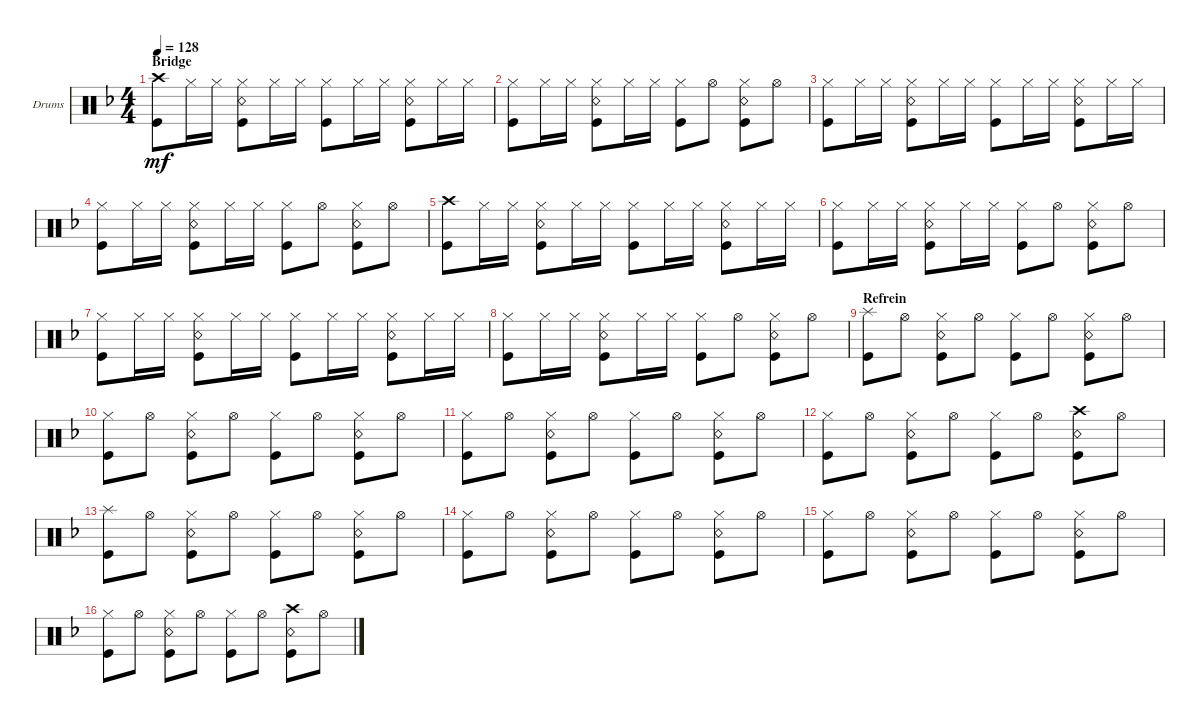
\defaultSystemsLayout 4
\bracketExtendMode groupsimilarinstruments
\firstSystemTrackNameOrientation horizontal
\otherSystemsTrackNameOrientation horizontal
\track ("Drumkit" "Drums") {instrument percussion}
\staff {score}
\articulation defaults
\ts (4 4)
\section ("" "Bridge")
\tempo 128
\clef neutral
\ks f
("Kick (hit)" "Crash high (hit)").8{dy mf} "Hi-Hat (closed)".16 "Hi-Hat (closed)".16 ("Snare (rim shot)" "Hi-Hat (closed)" "Kick (hit)").8 "Hi-Hat (closed)".16 "Hi-Hat (closed)".16 ("Kick (hit)" "Hi-Hat (closed)").8 "Hi-Hat (closed)".16 "Hi-Hat (closed)".16 ("Snare (rim shot)" "Hi-Hat (closed)" "Kick (hit)").8 "Hi-Hat (closed)".16 "Hi-Hat (closed)".16 |
("Kick (hit)" "Hi-Hat (closed)").8 "Hi-Hat (closed)".16 "Hi-Hat (closed)".16 ("Snare (rim shot)" "Hi-Hat (closed)" "Kick (hit)").8 "Hi-Hat (closed)".16 "Hi-Hat (closed)".16 ("Kick (hit)" "Hi-Hat (closed)").8 "Hi-Hat (open)".8 ("Snare (rim shot)" "Hi-Hat (closed)" "Kick (hit)").8 "Hi-Hat (open)".8 |
("Kick (hit)" "Hi-Hat (closed)").8 "Hi-Hat (closed)".16 "Hi-Hat (closed)".16 ("Snare (rim shot)" "Hi-Hat (closed)" "Kick (hit)").8 "Hi-Hat (closed)".16 "Hi-Hat (closed)".16 ("Kick (hit)" "Hi-Hat (closed)").8 "Hi-Hat (closed)".16 "Hi-Hat (closed)".16 ("Snare (rim shot)" "Hi-Hat (closed)" "Kick (hit)").8 "Hi-Hat (closed)".16 "Hi-Hat (closed)".16 |
("Kick (hit)" "Hi-Hat (closed)").8 "Hi-Hat (closed)".16 "Hi-Hat (closed)".16 ("Snare (rim shot)" "Hi-Hat (closed)" "Kick (hit)").8 "Hi-Hat (closed)".16 "Hi-Hat (closed)".16 ("Kick (hit)" "Hi-Hat (closed)").8 "Hi-Hat (open)".8 ("Snare (rim shot)" "Hi-Hat (closed)" "Kick (hit)").8 "Hi-Hat (open)".8 |
("Kick (hit)" "Crash high (hit)").8 "Hi-Hat (closed)".16 "Hi-Hat (closed)".16 ("Snare (rim shot)" "Hi-Hat (closed)" "Kick (hit)").8 "Hi-Hat (closed)".16 "Hi-Hat (closed)".16 ("Kick (hit)" "Hi-Hat (closed)").8 "Hi-Hat (closed)".16 "Hi-Hat (closed)".16 ("Snare (rim shot)" "Hi-Hat (closed)" "Kick (hit)").8 "Hi-Hat (closed)".16 "Hi-Hat (closed)".16 |
("Kick (hit)" "Hi-Hat (closed)").8 "Hi-Hat (closed)".16 "Hi-Hat (closed)".16 ("Snare (rim shot)" "Hi-Hat (closed)" "Kick (hit)").8 "Hi-Hat (closed)".16 "Hi-Hat (closed)".16 ("Kick (hit)" "Hi-Hat (closed)").8 "Hi-Hat (open)".8 ("Snare (rim shot)" "Hi-Hat (closed)" "Kick (hit)").8 "Hi-Hat (open)".8 |
("Kick (hit)" "Hi-Hat (closed)").8 "Hi-Hat (closed)".16 "Hi-Hat (closed)".16 ("Snare (rim shot)" "Hi-Hat (closed)" "Kick (hit)").8 "Hi-Hat (closed)".16 "Hi-Hat (closed)".16 ("Kick (hit)" "Hi-Hat (closed)").8 "Hi-Hat (closed)".16 "Hi-Hat (closed)".16 ("Snare (rim shot)" "Hi-Hat (closed)" "Kick (hit)").8 "Hi-Hat (closed)".16 "Hi-Hat (closed)".16 |
("Kick (hit)" "Hi-Hat (closed)").8 "Hi-Hat (closed)".16 "Hi-Hat (closed)".16 ("Snare (rim shot)" "Hi-Hat (closed)" "Kick (hit)").8 "Hi-Hat (closed)".16 "Hi-Hat (closed)".16 ("Kick (hit)" "Hi-Hat (closed)").8 "Hi-Hat (open)".8 ("Snare (rim shot)" "Hi-Hat (closed)" "Kick (hit)").8 "Hi-Hat (open)".8 |
\section ("" "Refrein")
("Kick (hit)" "Splash (hit)").8 "Hi-Hat (open)".8 ("Snare (rim shot)" "Kick (hit)" "Hi-Hat (closed)").8 "Hi-Hat (open)".8 ("Hi-Hat (closed)" "Kick (hit)").8 "Hi-Hat (open)".8 ("Snare (rim shot)" "Kick (hit)" "Hi-Hat (closed)").8 "Hi-Hat (open)".8 |
("Hi-Hat (closed)" "Kick (hit)").8 "Hi-Hat (open)".8 ("Snare (rim shot)" "Kick (hit)" "Hi-Hat (closed)").8 "Hi-Hat (open)".8 ("Hi-Hat (closed)" "Kick (hit)").8 "Hi-Hat (open)".8 ("Snare (rim shot)" "Kick (hit)" "Hi-Hat (closed)").8 "Hi-Hat (open)".8 |
("Hi-Hat (closed)" "Kick (hit)").8 "Hi-Hat (open)".8 ("Snare (rim shot)" "Kick (hit)" "Hi-Hat (closed)").8 "Hi-Hat (open)".8 ("Hi-Hat (closed)" "Kick (hit)").8 "Hi-Hat (open)".8 ("Snare (rim shot)" "Kick (hit)" "Hi-Hat (closed)").8 "Hi-Hat (open)".8 |
("Hi-Hat (closed)" "Kick (hit)").8 "Hi-Hat (open)".8 ("Snare (rim shot)" "Kick (hit)" "Hi-Hat (closed)").8 "Hi-Hat (open)".8 ("Hi-Hat (closed)" "Kick (hit)").8 "Hi-Hat (open)".8 ("Snare (rim shot)" "Kick (hit)" "Crash high (hit)").8 "Hi-Hat (open)".8 |
("Kick (hit)" "Splash (hit)").8 "Hi-Hat (open)".8 ("Snare (rim shot)" "Kick (hit)" "Hi-Hat (closed)").8 "Hi-Hat (open)".8 ("Hi-Hat (closed)" "Kick (hit)").8 "Hi-Hat (open)".8 ("Snare (rim shot)" "Kick (hit)" "Hi-Hat (closed)").8 "Hi-Hat (open)".8 |
("Hi-Hat (closed)" "Kick (hit)").8 "Hi-Hat (open)".8 ("Snare (rim shot)" "Kick (hit)" "Hi-Hat (closed)").8 "Hi-Hat (open)".8 ("Hi-Hat (closed)" "Kick (hit)").8 "Hi-Hat (open)".8 ("Snare (rim shot)" "Kick (hit)" "Hi-Hat (closed)").8 "Hi-Hat (open)".8 |
("Hi-Hat (closed)" "Kick (hit)").8 "Hi-Hat (open)".8 ("Snare (rim shot)" "Kick (hit)" "Hi-Hat (closed)").8 "Hi-Hat (open)".8 ("Hi-Hat (closed)" "Kick (hit)").8 "Hi-Hat (open)".8 ("Snare (rim shot)" "Kick (hit)" "Hi-Hat (closed)").8 "Hi-Hat (open)".8 |
("Hi-Hat (closed)" "Kick (hit)").8 "Hi-Hat (open)".8 ("Snare (rim shot)" "Kick (hit)" "Hi-Hat (closed)").8 "Hi-Hat (open)".8 ("Hi-Hat (closed)" "Kick (hit)").8 "Hi-Hat (open)".8 ("Snare (rim shot)" "Kick (hit)" "Crash high (hit)").8 "Hi-Hat (open)".8
